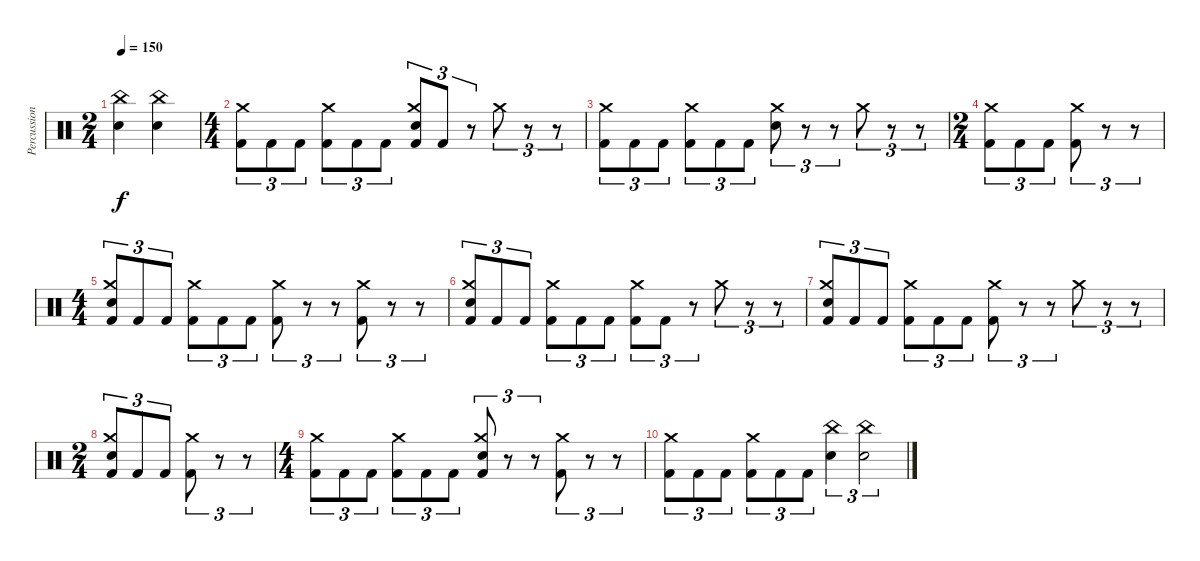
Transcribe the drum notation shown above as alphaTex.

\track ("Percussion" "Percussion") {instrument percussion}
\staff {score}
\articulation defaults
\ts (2 4)
\tempo 150
\clef neutral
\ks c
("China (hit)" "Snare (hit) 2").4{dy f} ("China (hit)" "Snare (hit) 2").4 |
\ts (4 4)
("Crash medium (hit)" "Kick (hit) 2").8{tu (3 2)} "Kick (hit) 2".8{tu (3 2)} "Kick (hit) 2".8{tu (3 2)} ("Crash medium (hit)" "Kick (hit) 2").8{tu (3 2)} "Kick (hit) 2".8{tu (3 2)} "Kick (hit) 2".8{tu (3 2)} ("Crash medium (hit)" "Snare (hit) 2" "Kick (hit) 2").8{tu (3 2)} "Kick (hit) 2".8{tu (3 2)} r.8{tu (3 2)} "Crash medium (hit)".8{tu (3 2)} r.8{tu (3 2)} r.8{tu (3 2)} |
("Crash medium (hit)" "Kick (hit) 2").8{tu (3 2)} "Kick (hit) 2".8{tu (3 2)} "Kick (hit) 2".8{tu (3 2)} ("Crash medium (hit)" "Kick (hit) 2").8{tu (3 2)} "Kick (hit) 2".8{tu (3 2)} "Kick (hit) 2".8{tu (3 2)} ("Crash medium (hit)" "Snare (hit) 2").8{tu (3 2)} r.8{tu (3 2)} r.8{tu (3 2)} "Crash medium (hit)".8{tu (3 2)} r.8{tu (3 2)} r.8{tu (3 2)} |
\ts (2 4)
("Crash medium (hit)" "Kick (hit) 2").8{tu (3 2)} "Kick (hit) 2".8{tu (3 2)} "Kick (hit) 2".8{tu (3 2)} ("Crash medium (hit)" "Kick (hit) 2").8{tu (3 2)} r.8{tu (3 2)} r.8{tu (3 2)} |
\ts (4 4)
("Crash medium (hit)" "Snare (hit) 2" "Kick (hit) 2").8{tu (3 2)} "Kick (hit) 2".8{tu (3 2)} "Kick (hit) 2".8{tu (3 2)} ("Crash medium (hit)" "Kick (hit) 2").8{tu (3 2)} "Kick (hit) 2".8{tu (3 2)} "Kick (hit) 2".8{tu (3 2)} ("Crash medium (hit)" "Kick (hit) 2").8{tu (3 2)} r.8{tu (3 2)} r.8{tu (3 2)} ("Crash medium (hit)" "Kick (hit) 2").8{tu (3 2)} r.8{tu (3 2)} r.8{tu (3 2)} |
("Crash medium (hit)" "Snare (hit) 2" "Kick (hit) 2").8{tu (3 2)} "Kick (hit) 2".8{tu (3 2)} "Kick (hit) 2".8{tu (3 2)} ("Crash medium (hit)" "Kick (hit) 2").8{tu (3 2)} "Kick (hit) 2".8{tu (3 2)} "Kick (hit) 2".8{tu (3 2)} ("Crash medium (hit)" "Kick (hit) 2").8{tu (3 2)} "Kick (hit) 2".8{tu (3 2)} r.8{tu (3 2)} "Crash medium (hit)".8{tu (3 2)} r.8{tu (3 2)} r.8{tu (3 2)} |
("Crash medium (hit)" "Snare (hit) 2" "Kick (hit) 2").8{tu (3 2)} "Kick (hit) 2".8{tu (3 2)} "Kick (hit) 2".8{tu (3 2)} ("Crash medium (hit)" "Kick (hit) 2").8{tu (3 2)} "Kick (hit) 2".8{tu (3 2)} "Kick (hit) 2".8{tu (3 2)} ("Crash medium (hit)" "Kick (hit) 2").8{tu (3 2)} r.8{tu (3 2)} r.8{tu (3 2)} "Crash medium (hit)".8{tu (3 2)} r.8{tu (3 2)} r.8{tu (3 2)} |
\ts (2 4)
("Crash medium (hit)" "Snare (hit) 2" "Kick (hit) 2").8{tu (3 2)} "Kick (hit) 2".8{tu (3 2)} "Kick (hit) 2".8{tu (3 2)} ("Crash medium (hit)" "Kick (hit) 2").8{tu (3 2)} r.8{tu (3 2)} r.8{tu (3 2)} |
\ts (4 4)
("Crash medium (hit)" "Kick (hit) 2").8{tu (3 2)} "Kick (hit) 2".8{tu (3 2)} "Kick (hit) 2".8{tu (3 2)} ("Crash medium (hit)" "Kick (hit) 2").8{tu (3 2)} "Kick (hit) 2".8{tu (3 2)} "Kick (hit) 2".8{tu (3 2)} ("Crash medium (hit)" "Snare (hit) 2" "Kick (hit) 2").8{tu (3 2)} r.8{tu (3 2)} r.8{tu (3 2)} ("Crash medium (hit)" "Kick (hit) 2").8{tu (3 2)} r.8{tu (3 2)} r.8{tu (3 2)} |
("Crash medium (hit)" "Kick (hit) 2").8{tu (3 2)} "Kick (hit) 2".8{tu (3 2)} "Kick (hit) 2".8{tu (3 2)} ("Crash medium (hit)" "Kick (hit) 2").8{tu (3 2)} "Kick (hit) 2".8{tu (3 2)} "Kick (hit) 2".8{tu (3 2)} ("China (hit)" "Snare (hit) 2").4{tu (3 2)} ("China (hit)" "Snare (hit) 2").2{tu (3 2)}
